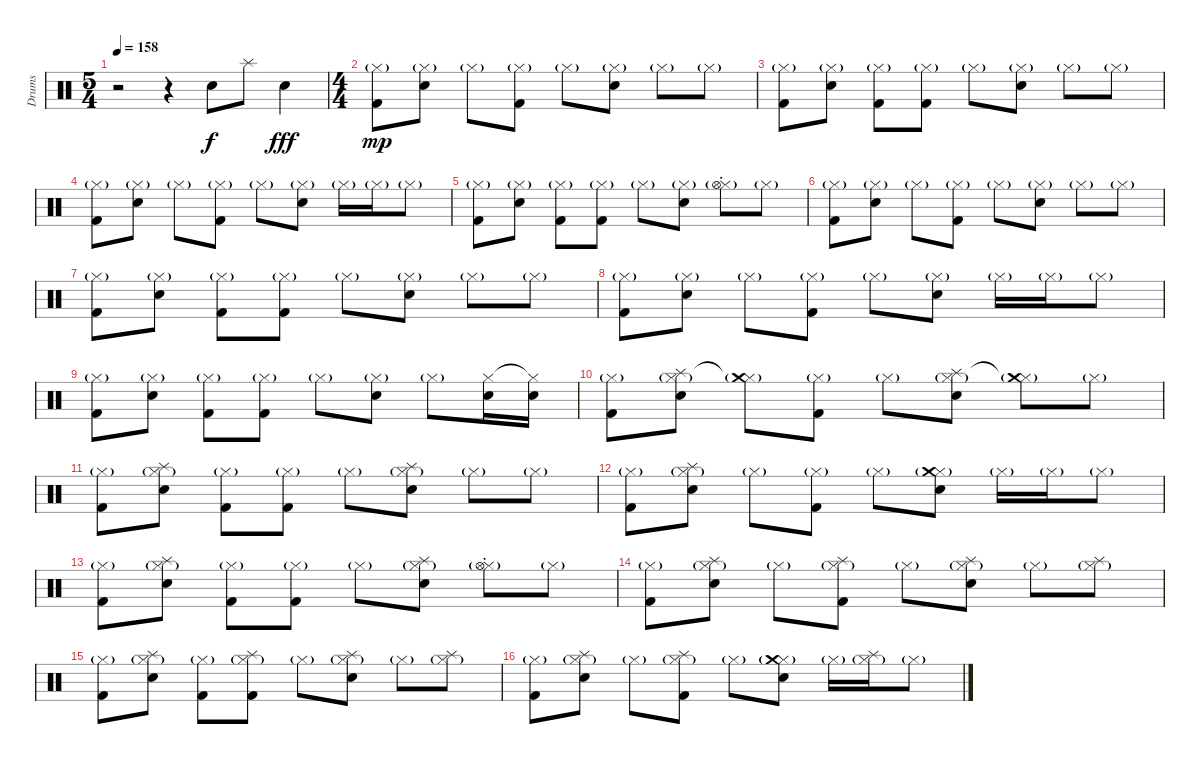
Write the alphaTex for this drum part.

\track ("Drums" "Drums") {instrument percussion}
\staff {score}
\articulation defaults
\ts (5 4)
\tempo 158
\clef neutral
\ks c
r.2{dy fff} r.4 "Electric Snare (hit)".8{dy f} "Splash (hit)".8 "Electric Snare (hit)".4{dy fff} |
\ts (4 4)
("Hi-Hat (closed)"{g} "Kick (hit) 2").8{dy mp} ("Hi-Hat (closed)"{g} "Electric Snare (hit)").8 "Hi-Hat (closed)"{g}.8 ("Hi-Hat (closed)"{g} "Kick (hit) 2").8 "Hi-Hat (closed)"{g}.8 ("Hi-Hat (closed)"{g} "Electric Snare (hit)").8 "Hi-Hat (closed)"{g}.8 "Hi-Hat (closed)"{g}.8 |
("Hi-Hat (closed)"{g} "Kick (hit) 2").8 ("Hi-Hat (closed)"{g} "Electric Snare (hit)").8 ("Hi-Hat (closed)"{g} "Kick (hit) 2").8 ("Hi-Hat (closed)"{g} "Kick (hit) 2").8 "Hi-Hat (closed)"{g}.8 ("Hi-Hat (closed)"{g} "Electric Snare (hit)").8 "Hi-Hat (closed)"{g}.8 "Hi-Hat (closed)"{g}.8 |
("Hi-Hat (closed)"{g} "Kick (hit) 2").8 ("Hi-Hat (closed)"{g} "Electric Snare (hit)").8 "Hi-Hat (closed)"{g}.8 ("Hi-Hat (closed)"{g} "Kick (hit) 2").8 "Hi-Hat (closed)"{g}.8 ("Hi-Hat (closed)"{g} "Electric Snare (hit)").8 "Hi-Hat (closed)"{g}.16 "Hi-Hat (closed)"{g}.16 "Hi-Hat (closed)"{g}.8 |
("Hi-Hat (closed)"{g} "Kick (hit) 2").8 ("Hi-Hat (closed)"{g} "Electric Snare (hit)").8 ("Hi-Hat (closed)"{g} "Kick (hit) 2").8 ("Hi-Hat (closed)"{g} "Kick (hit) 2").8 "Hi-Hat (closed)"{g}.8 ("Hi-Hat (closed)"{g} "Electric Snare (hit)").8 ("Hi-Hat (closed)"{g} "Hi-Hat (open)"{st}).8 "Hi-Hat (closed)"{g}.8 |
("Hi-Hat (closed)"{g} "Kick (hit) 2").8 ("Hi-Hat (closed)"{g} "Electric Snare (hit)").8 "Hi-Hat (closed)"{g}.8 ("Hi-Hat (closed)"{g} "Kick (hit) 2").8 "Hi-Hat (closed)"{g}.8 ("Hi-Hat (closed)"{g} "Electric Snare (hit)").8 "Hi-Hat (closed)"{g}.8 "Hi-Hat (closed)"{g}.8 |
("Hi-Hat (closed)"{g} "Kick (hit) 2").8 ("Hi-Hat (closed)"{g} "Electric Snare (hit)").8 ("Hi-Hat (closed)"{g} "Kick (hit) 2").8 ("Hi-Hat (closed)"{g} "Kick (hit) 2").8 "Hi-Hat (closed)"{g}.8 ("Hi-Hat (closed)"{g} "Electric Snare (hit)").8 "Hi-Hat (closed)"{g}.8 "Hi-Hat (closed)"{g}.8 |
("Hi-Hat (closed)"{g} "Kick (hit) 2").8 ("Hi-Hat (closed)"{g} "Electric Snare (hit)").8 "Hi-Hat (closed)"{g}.8 ("Hi-Hat (closed)"{g} "Kick (hit) 2").8 "Hi-Hat (closed)"{g}.8 ("Hi-Hat (closed)"{g} "Electric Snare (hit)").8 "Hi-Hat (closed)"{g}.16 "Hi-Hat (closed)"{g}.16 "Hi-Hat (closed)"{g}.8 |
("Hi-Hat (closed)"{g} "Kick (hit) 2").8 ("Hi-Hat (closed)"{g} "Electric Snare (hit)").8 ("Hi-Hat (closed)"{g} "Kick (hit) 2").8 ("Hi-Hat (closed)"{g} "Kick (hit) 2").8 "Hi-Hat (closed)"{g}.8 ("Hi-Hat (closed)"{g} "Electric Snare (hit)").8 "Hi-Hat (closed)"{g}.8 ("Hi-Hat (closed)" "Electric Snare (hit)").16 ("Hi-Hat (closed)"{t} "Electric Snare (hit)").16 |
("Hi-Hat (closed)"{g} "Kick (hit) 2").8 ("Hi-Hat (closed)"{g} "Splash (hit)" "Electric Snare (hit)").8 ("Hi-Hat (closed)"{g} "Crash medium (hit)"{t}).8 ("Hi-Hat (closed)"{g} "Kick (hit) 2").8 "Hi-Hat (closed)"{g}.8 ("Hi-Hat (closed)"{g} "Splash (hit)" "Electric Snare (hit)").8 ("Hi-Hat (closed)"{g} "Crash medium (hit)"{t}).8 "Hi-Hat (closed)"{g}.8 |
("Hi-Hat (closed)"{g} "Kick (hit) 2").8 ("Hi-Hat (closed)"{g} "Splash (hit)" "Electric Snare (hit)").8 ("Hi-Hat (closed)"{g} "Kick (hit) 2").8 ("Hi-Hat (closed)"{g} "Kick (hit) 2").8 "Hi-Hat (closed)"{g}.8 ("Hi-Hat (closed)"{g} "Splash (hit)" "Electric Snare (hit)").8 "Hi-Hat (closed)"{g}.8 "Hi-Hat (closed)"{g}.8 |
("Hi-Hat (closed)"{g} "Kick (hit) 2").8 ("Hi-Hat (closed)"{g} "Splash (hit)" "Electric Snare (hit)").8 "Hi-Hat (closed)"{g}.8 ("Hi-Hat (closed)"{g} "Kick (hit) 2").8 "Hi-Hat (closed)"{g}.8 ("Hi-Hat (closed)"{g} "Crash medium (hit)" "Electric Snare (hit)").8 "Hi-Hat (closed)"{g}.16 "Hi-Hat (closed)"{g}.16 "Hi-Hat (closed)"{g}.8 |
("Hi-Hat (closed)"{g} "Kick (hit) 2").8 ("Hi-Hat (closed)"{g} "Splash (hit)" "Electric Snare (hit)").8 ("Hi-Hat (closed)"{g} "Kick (hit) 2").8 ("Hi-Hat (closed)"{g} "Kick (hit) 2").8 "Hi-Hat (closed)"{g}.8 ("Hi-Hat (closed)"{g} "Splash (hit)" "Electric Snare (hit)").8 ("Hi-Hat (closed)"{g} "Hi-Hat (open)"{st}).8 "Hi-Hat (closed)"{g}.8 |
("Hi-Hat (closed)"{g} "Kick (hit) 2").8 ("Hi-Hat (closed)"{g} "Splash (hit)" "Electric Snare (hit)").8 "Hi-Hat (closed)"{g}.8 ("Hi-Hat (closed)"{g} "Splash (hit)" "Kick (hit) 2").8 "Hi-Hat (closed)"{g}.8 ("Hi-Hat (closed)"{g} "Splash (hit)" "Electric Snare (hit)").8 "Hi-Hat (closed)"{g}.8 ("Hi-Hat (closed)"{g} "Splash (hit)").8 |
("Hi-Hat (closed)"{g} "Kick (hit) 2").8 ("Hi-Hat (closed)"{g} "Splash (hit)" "Electric Snare (hit)").8 ("Hi-Hat (closed)"{g} "Kick (hit) 2").8 ("Hi-Hat (closed)"{g} "Splash (hit)" "Kick (hit) 2").8 "Hi-Hat (closed)"{g}.8 ("Hi-Hat (closed)"{g} "Splash (hit)" "Electric Snare (hit)").8 "Hi-Hat (closed)"{g}.8 ("Hi-Hat (closed)"{g} "Splash (hit)").8 |
("Hi-Hat (closed)"{g} "Kick (hit) 2").8 ("Hi-Hat (closed)"{g} "Splash (hit)" "Electric Snare (hit)").8 "Hi-Hat (closed)"{g}.8 ("Hi-Hat (closed)"{g} "Splash (hit)" "Kick (hit) 2").8 "Hi-Hat (closed)"{g}.8 ("Hi-Hat (closed)"{g} "Crash medium (hit)" "Electric Snare (hit)").8 "Hi-Hat (closed)"{g}.16 ("Hi-Hat (closed)"{g} "Splash (hit)").16 "Hi-Hat (closed)"{g}.8
